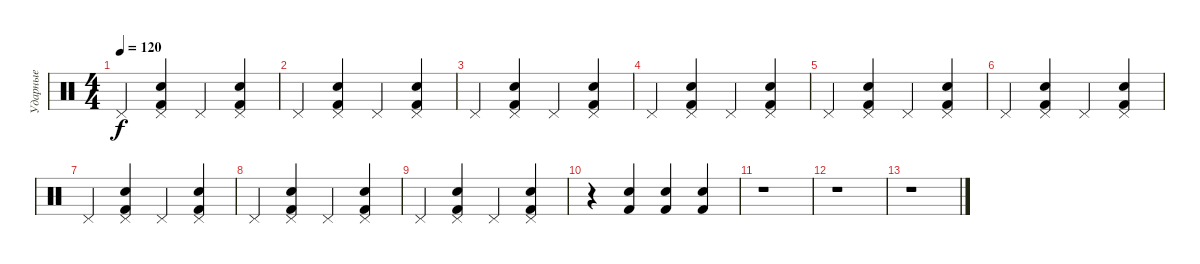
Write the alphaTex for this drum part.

\track ("Ударные" "Ударные") {instrument percussion}
\staff {score}
\articulation defaults
\ts (4 4)
\tempo 120
\clef neutral
\ks c "Pedal Hi-Hat (hit)".4{dy f}
("Electric Snare (hit)" "Pedal Hi-Hat (hit)" "Kick (hit) 2").4 "Pedal Hi-Hat (hit)".4 ("Electric Snare (hit)" "Pedal Hi-Hat (hit)" "Kick (hit) 2").4 |
"Pedal Hi-Hat (hit)".4 ("Electric Snare (hit)" "Pedal Hi-Hat (hit)" "Kick (hit) 2").4 "Pedal Hi-Hat (hit)".4 ("Electric Snare (hit)" "Pedal Hi-Hat (hit)" "Kick (hit) 2").4 |
"Pedal Hi-Hat (hit)".4 ("Electric Snare (hit)" "Pedal Hi-Hat (hit)" "Kick (hit) 2").4 "Pedal Hi-Hat (hit)".4 ("Electric Snare (hit)" "Pedal Hi-Hat (hit)" "Kick (hit) 2").4 |
"Pedal Hi-Hat (hit)".4 ("Electric Snare (hit)" "Pedal Hi-Hat (hit)" "Kick (hit) 2").4 "Pedal Hi-Hat (hit)".4 ("Electric Snare (hit)" "Pedal Hi-Hat (hit)" "Kick (hit) 2").4 |
"Pedal Hi-Hat (hit)".4 ("Electric Snare (hit)" "Pedal Hi-Hat (hit)" "Kick (hit) 2").4 "Pedal Hi-Hat (hit)".4 ("Electric Snare (hit)" "Pedal Hi-Hat (hit)" "Kick (hit) 2").4 |
"Pedal Hi-Hat (hit)".4 ("Electric Snare (hit)" "Pedal Hi-Hat (hit)" "Kick (hit) 2").4 "Pedal Hi-Hat (hit)".4 ("Electric Snare (hit)" "Pedal Hi-Hat (hit)" "Kick (hit) 2").4 |
"Pedal Hi-Hat (hit)".4 ("Electric Snare (hit)" "Pedal Hi-Hat (hit)" "Kick (hit) 2").4 "Pedal Hi-Hat (hit)".4 ("Electric Snare (hit)" "Pedal Hi-Hat (hit)" "Kick (hit) 2").4 |
"Pedal Hi-Hat (hit)".4 ("Electric Snare (hit)" "Pedal Hi-Hat (hit)" "Kick (hit) 2").4 "Pedal Hi-Hat (hit)".4 ("Electric Snare (hit)" "Pedal Hi-Hat (hit)" "Kick (hit) 2").4 |
"Pedal Hi-Hat (hit)".4 ("Electric Snare (hit)" "Pedal Hi-Hat (hit)" "Kick (hit) 2").4 "Pedal Hi-Hat (hit)".4 ("Electric Snare (hit)" "Pedal Hi-Hat (hit)" "Kick (hit) 2").4 |
r.4 ("Electric Snare (hit)" "Kick (hit) 2").4 ("Electric Snare (hit)" "Kick (hit) 2").4 ("Electric Snare (hit)" "Kick (hit) 2").4 |
r.1 |
r.1 |
r.1
